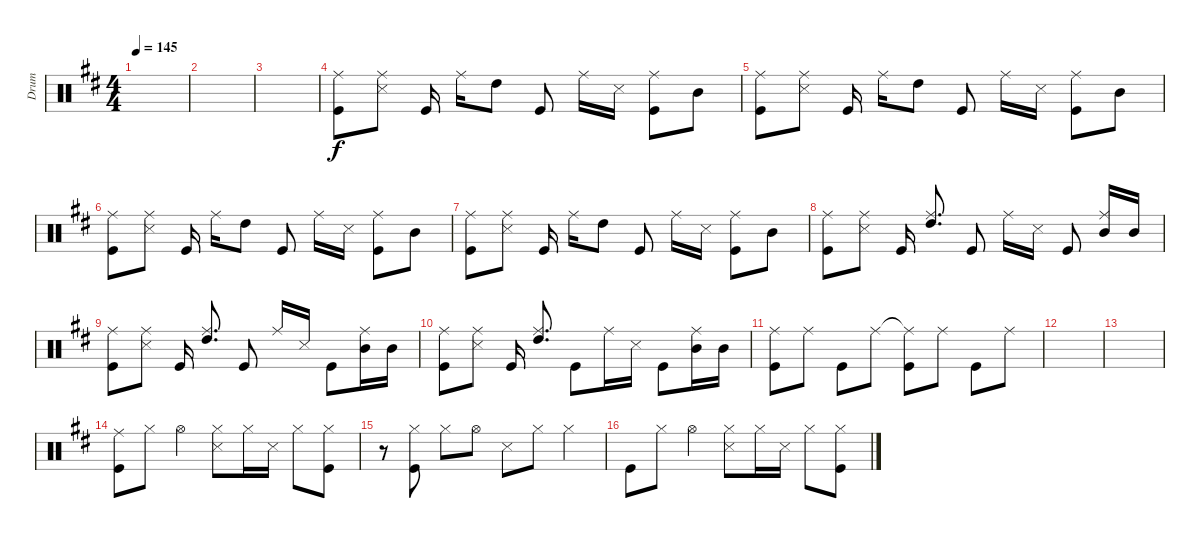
\track ("     Drum" "     Drum") {instrument percussion}
\staff {score}
\articulation defaults
\ts (4 4)
\tempo 145
\clef neutral
\ks d
|
|
|
("Ride (middle)" "Kick (hit)").8 ("Ride (middle)" "Snare (side stick) 3").8 "Kick (hit)".16{beam split} "Ride (middle)".16 "High Tom (hit)".8 "Kick (hit)".8{beam split} "Ride (middle)".16{beam merge} "Snare (side stick) 3".16{beam split} ("Ride (middle)" "Kick (hit)").8{beam merge} "Mid Tom (hit)".8 |
("Ride (middle)" "Kick (hit)").8 ("Ride (middle)" "Snare (side stick) 3").8 "Kick (hit)".16{beam split} "Ride (middle)".16 "High Tom (hit)".8 "Kick (hit)".8{beam split} "Ride (middle)".16{beam merge} "Snare (side stick) 3".16{beam split} ("Ride (middle)" "Kick (hit)").8{beam merge} "Mid Tom (hit)".8 |
("Ride (middle)" "Kick (hit)").8 ("Ride (middle)" "Snare (side stick) 3").8 "Kick (hit)".16{beam split} "Ride (middle)".16 "High Tom (hit)".8 "Kick (hit)".8{beam split} "Ride (middle)".16{beam merge} "Snare (side stick) 3".16{beam split} ("Ride (middle)" "Kick (hit)").8{beam merge} "Mid Tom (hit)".8 |
("Ride (middle)" "Kick (hit)").8 ("Ride (middle)" "Snare (side stick) 3").8 "Kick (hit)".16{beam split} "Ride (middle)".16 "High Tom (hit)".8 "Kick (hit)".8{beam split} "Ride (middle)".16{beam merge} "Snare (side stick) 3".16{beam split} ("Ride (middle)" "Kick (hit)").8{beam merge} "Mid Tom (hit)".8 |
("Ride (middle)" "Kick (hit)").8 ("Ride (middle)" "Snare (side stick) 3").8 "Kick (hit)".16{beam split} ("Ride (middle)" "High Tom (hit)").8{d beam Up beam split} "Kick (hit)".8{beam split} "Ride (middle)".16 "Snare (side stick) 3".16 "Kick (hit)".8{beam split} ("Ride (middle)" "Mid Tom (hit)").16{beam Up beam merge} "Mid Tom (hit)".16{beam Up} |
("Ride (middle)" "Kick (hit)").8 ("Ride (middle)" "Snare (side stick) 3").8 "Kick (hit)".16{beam split} ("Ride (middle)" "High Tom (hit)").8{d beam Up beam split} "Kick (hit)".8{beam Up beam split} "Ride (middle)".16{beam Up} "Snare (side stick) 3".16{beam Up} "Kick (hit)".8 ("Ride (middle)" "Mid Tom (hit)").16 "Mid Tom (hit)".16 |
("Ride (middle)" "Kick (hit)").8 ("Ride (middle)" "Snare (side stick) 3").8 "Kick (hit)".16{beam split} ("Ride (middle)" "High Tom (hit)").8{d beam Up beam split} "Kick (hit)".8 "Ride (middle)".16 "Snare (side stick) 3".16 "Kick (hit)".8 ("Ride (middle)" "Mid Tom (hit)").16 "Mid Tom (hit)".16 |
("Ride (middle)" "Kick (hit)").8 "Ride (middle)".8 "Kick (hit)".8 "Ride (middle)".8 ("Ride (middle)"{t} "Kick (hit)").8 "Ride (middle)".8 "Kick (hit)".8 "Ride (middle)".8 |
|
|
("Ride (middle)" "Kick (hit)").8 "Hi-Hat (closed)".8 "Hi-Hat (open)".4 ("Hi-Hat (closed)" "Snare (side stick) 3").8 "Hi-Hat (closed)".16 "Snare (side stick) 3".16 "Hi-Hat (closed)".8 ("Hi-Hat (closed)" "Kick (hit)").8 |
r.8 ("Hi-Hat (closed)" "Kick (hit)").8 "Hi-Hat (closed)".8 "Hi-Hat (open)".8 "Snare (side stick) 3".8 "Hi-Hat (closed)".8 "Hi-Hat (closed)".4 |
"Kick (hit)".8 "Hi-Hat (closed)".8 "Hi-Hat (open)".4 ("Hi-Hat (closed)" "Snare (side stick) 3").8 "Hi-Hat (closed)".16 "Snare (side stick) 3".16 "Hi-Hat (closed)".8 ("Hi-Hat (closed)" "Kick (hit)").8
